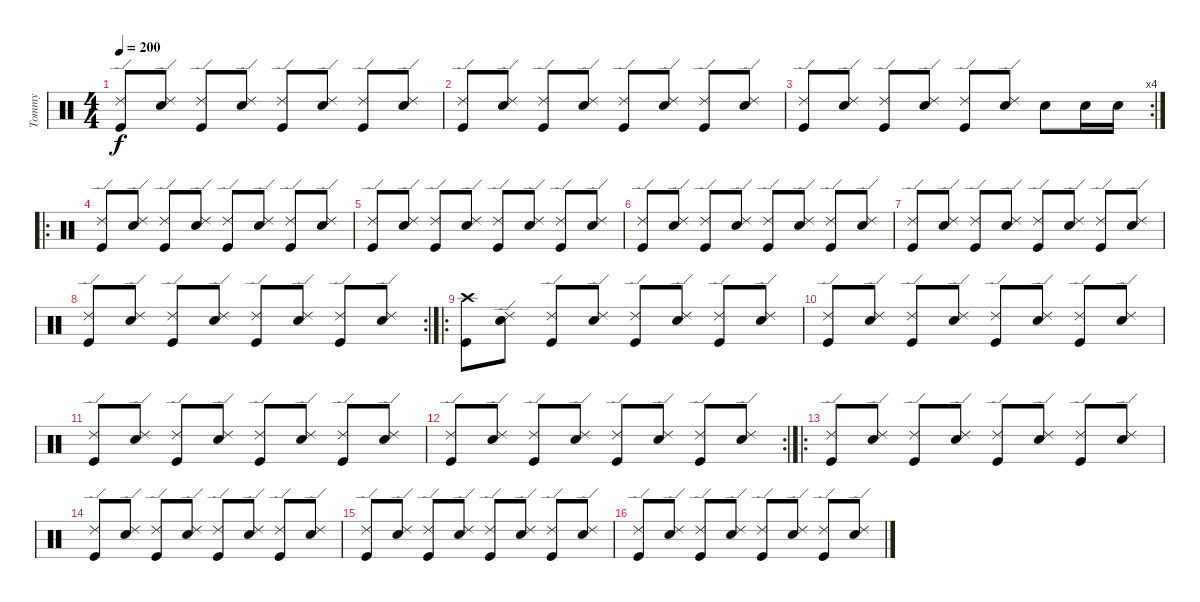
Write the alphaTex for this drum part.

\track ("Tommy" "Tommy") {instrument percussion}
\staff {score}
\articulation defaults
\ts (4 4)
\tempo 200
\clef neutral
\ks c
("Ride (edge) 2" "Kick (hit)").8{dy f} ("Ride (edge) 2" "Snare (hit) 2").8 ("Ride (edge) 2" "Kick (hit)").8 ("Ride (edge) 2" "Snare (hit) 2").8 ("Ride (edge) 2" "Kick (hit)").8 ("Ride (edge) 2" "Snare (hit) 2").8 ("Ride (edge) 2" "Kick (hit)").8 ("Ride (edge) 2" "Snare (hit) 2").8 |
("Ride (edge) 2" "Kick (hit)").8 ("Ride (edge) 2" "Snare (hit) 2").8 ("Ride (edge) 2" "Kick (hit)").8 ("Ride (edge) 2" "Snare (hit) 2").8 ("Ride (edge) 2" "Kick (hit)").8 ("Ride (edge) 2" "Snare (hit) 2").8 ("Ride (edge) 2" "Kick (hit)").8 ("Ride (edge) 2" "Snare (hit) 2").8 |
\rc 4
("Ride (edge) 2" "Kick (hit)").8 ("Ride (edge) 2" "Snare (hit) 2").8 ("Ride (edge) 2" "Kick (hit)").8 ("Ride (edge) 2" "Snare (hit) 2").8 ("Ride (edge) 2" "Kick (hit)").8 ("Ride (edge) 2" "Snare (hit) 2").8 "Snare (hit) 2".8 "Snare (hit) 2".16 "Snare (hit) 2".16 |
\ro
("Ride (edge) 2" "Kick (hit)").8 ("Ride (edge) 2" "Snare (hit) 2").8 ("Ride (edge) 2" "Kick (hit)").8 ("Ride (edge) 2" "Snare (hit) 2").8 ("Ride (edge) 2" "Kick (hit)").8 ("Ride (edge) 2" "Snare (hit) 2").8 ("Ride (edge) 2" "Kick (hit)").8 ("Ride (edge) 2" "Snare (hit) 2").8 |
("Ride (edge) 2" "Kick (hit)").8 ("Ride (edge) 2" "Snare (hit) 2").8 ("Ride (edge) 2" "Kick (hit)").8 ("Ride (edge) 2" "Snare (hit) 2").8 ("Ride (edge) 2" "Kick (hit)").8 ("Ride (edge) 2" "Snare (hit) 2").8 ("Ride (edge) 2" "Kick (hit)").8 ("Ride (edge) 2" "Snare (hit) 2").8 |
("Ride (edge) 2" "Kick (hit)").8 ("Ride (edge) 2" "Snare (hit) 2").8 ("Ride (edge) 2" "Kick (hit)").8 ("Ride (edge) 2" "Snare (hit) 2").8 ("Ride (edge) 2" "Kick (hit)").8 ("Ride (edge) 2" "Snare (hit) 2").8 ("Ride (edge) 2" "Kick (hit)").8 ("Ride (edge) 2" "Snare (hit) 2").8 |
("Ride (edge) 2" "Kick (hit)").8 ("Ride (edge) 2" "Snare (hit) 2").8 ("Ride (edge) 2" "Kick (hit)").8 ("Ride (edge) 2" "Snare (hit) 2").8 ("Ride (edge) 2" "Kick (hit)").8 ("Ride (edge) 2" "Snare (hit) 2").8 ("Ride (edge) 2" "Kick (hit)").8 ("Ride (edge) 2" "Snare (hit) 2").8 |
\rc 2
("Ride (edge) 2" "Kick (hit)").8 ("Ride (edge) 2" "Snare (hit) 2").8 ("Ride (edge) 2" "Kick (hit)").8 ("Ride (edge) 2" "Snare (hit) 2").8 ("Ride (edge) 2" "Kick (hit)").8 ("Ride (edge) 2" "Snare (hit) 2").8 ("Ride (edge) 2" "Kick (hit)").8 ("Ride (edge) 2" "Snare (hit) 2").8 |
\ro
("Crash high (hit)" "Kick (hit)").8 ("Ride (edge) 2" "Snare (hit) 2").8 ("Ride (edge) 2" "Kick (hit)").8 ("Ride (edge) 2" "Snare (hit) 2").8 ("Ride (edge) 2" "Kick (hit)").8 ("Ride (edge) 2" "Snare (hit) 2").8 ("Ride (edge) 2" "Kick (hit)").8 ("Ride (edge) 2" "Snare (hit) 2").8 |
("Ride (edge) 2" "Kick (hit)").8 ("Ride (edge) 2" "Snare (hit) 2").8 ("Ride (edge) 2" "Kick (hit)").8 ("Ride (edge) 2" "Snare (hit) 2").8 ("Ride (edge) 2" "Kick (hit)").8 ("Ride (edge) 2" "Snare (hit) 2").8 ("Ride (edge) 2" "Kick (hit)").8 ("Ride (edge) 2" "Snare (hit) 2").8 |
("Ride (edge) 2" "Kick (hit)").8 ("Ride (edge) 2" "Snare (hit) 2").8 ("Ride (edge) 2" "Kick (hit)").8 ("Ride (edge) 2" "Snare (hit) 2").8 ("Ride (edge) 2" "Kick (hit)").8 ("Ride (edge) 2" "Snare (hit) 2").8 ("Ride (edge) 2" "Kick (hit)").8 ("Ride (edge) 2" "Snare (hit) 2").8 |
\rc 2
("Ride (edge) 2" "Kick (hit)").8 ("Ride (edge) 2" "Snare (hit) 2").8 ("Ride (edge) 2" "Kick (hit)").8 ("Ride (edge) 2" "Snare (hit) 2").8 ("Ride (edge) 2" "Kick (hit)").8 ("Ride (edge) 2" "Snare (hit) 2").8 ("Ride (edge) 2" "Kick (hit)").8 ("Ride (edge) 2" "Snare (hit) 2").8 |
\ro
("Ride (edge) 2" "Kick (hit)").8 ("Ride (edge) 2" "Snare (hit) 2").8 ("Ride (edge) 2" "Kick (hit)").8 ("Ride (edge) 2" "Snare (hit) 2").8 ("Ride (edge) 2" "Kick (hit)").8 ("Ride (edge) 2" "Snare (hit) 2").8 ("Ride (edge) 2" "Kick (hit)").8 ("Ride (edge) 2" "Snare (hit) 2").8 |
("Ride (edge) 2" "Kick (hit)").8 ("Ride (edge) 2" "Snare (hit) 2").8 ("Ride (edge) 2" "Kick (hit)").8 ("Ride (edge) 2" "Snare (hit) 2").8 ("Ride (edge) 2" "Kick (hit)").8 ("Ride (edge) 2" "Snare (hit) 2").8 ("Ride (edge) 2" "Kick (hit)").8 ("Ride (edge) 2" "Snare (hit) 2").8 |
("Ride (edge) 2" "Kick (hit)").8 ("Ride (edge) 2" "Snare (hit) 2").8 ("Ride (edge) 2" "Kick (hit)").8 ("Ride (edge) 2" "Snare (hit) 2").8 ("Ride (edge) 2" "Kick (hit)").8 ("Ride (edge) 2" "Snare (hit) 2").8 ("Ride (edge) 2" "Kick (hit)").8 ("Ride (edge) 2" "Snare (hit) 2").8 |
("Ride (edge) 2" "Kick (hit)").8 ("Ride (edge) 2" "Snare (hit) 2").8 ("Ride (edge) 2" "Kick (hit)").8 ("Ride (edge) 2" "Snare (hit) 2").8 ("Ride (edge) 2" "Kick (hit)").8 ("Ride (edge) 2" "Snare (hit) 2").8 ("Ride (edge) 2" "Kick (hit)").8 ("Ride (edge) 2" "Snare (hit) 2").8
